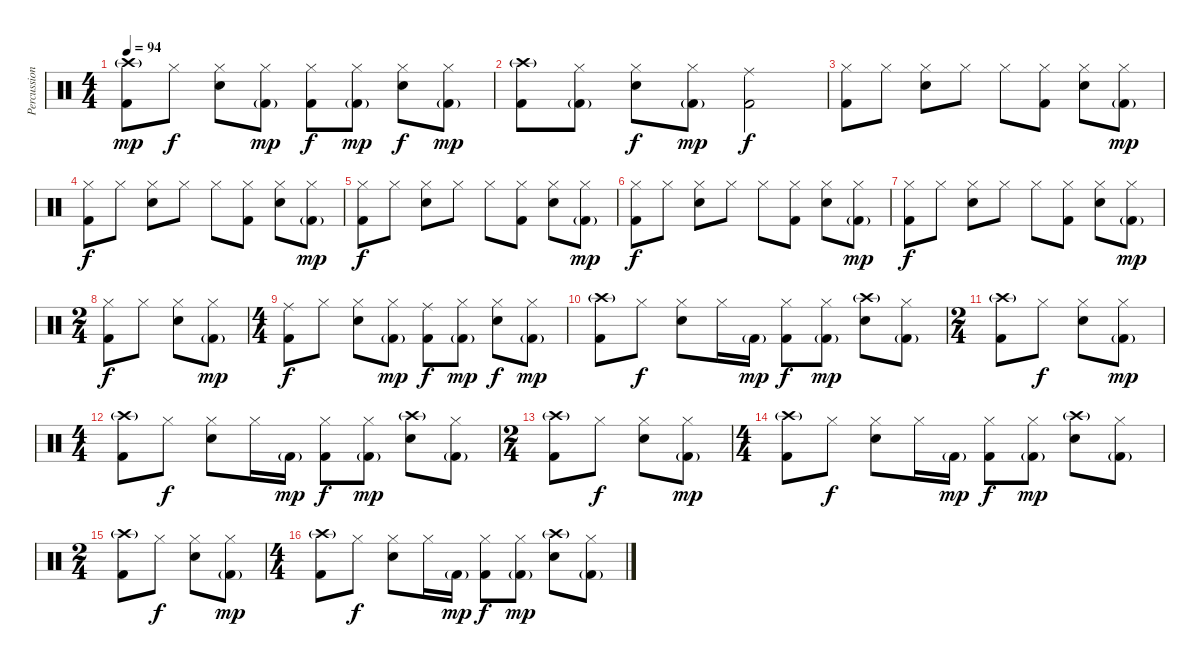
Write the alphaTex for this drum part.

\track ("Percussion" "Percussion") {instrument percussion}
\staff {score}
\articulation defaults
\ts (4 4)
\tempo 94
\clef neutral
\ks c
("Crash high (hit)"{g} "Kick (hit) 2").8{dy mp} "Hi-Hat (closed)".8{dy f} ("Hi-Hat (closed)" "Snare (hit) 2").8 ("Hi-Hat (closed)" "Kick (hit) 2"{g}).8{dy mp} ("Hi-Hat (closed)" "Kick (hit) 2").8{dy f} ("Hi-Hat (closed)" "Kick (hit) 2"{g}).8{dy mp} ("Hi-Hat (closed)" "Snare (hit) 2").8{dy f} ("Hi-Hat (closed)" "Kick (hit) 2"{g}).8{dy mp} |
("Crash high (hit)"{g} "Kick (hit) 2").8 ("Hi-Hat (closed)" "Kick (hit) 2"{g}).8 ("Hi-Hat (closed)" "Snare (hit) 2").8{dy f} ("Hi-Hat (closed)" "Kick (hit) 2"{g}).8{dy mp} ("Ride (middle)" "Kick (hit) 2").2{dy f} |
("Hi-Hat (closed)" "Kick (hit) 2").8 "Hi-Hat (closed)".8 ("Hi-Hat (closed)" "Snare (hit) 2").8 "Hi-Hat (closed)".8 "Hi-Hat (closed)".8 ("Hi-Hat (closed)" "Kick (hit) 2").8 ("Hi-Hat (closed)" "Snare (hit) 2").8 ("Hi-Hat (closed)" "Kick (hit) 2"{g}).8{dy mp} |
("Hi-Hat (closed)" "Kick (hit) 2").8{dy f} "Hi-Hat (closed)".8 ("Hi-Hat (closed)" "Snare (hit) 2").8 "Hi-Hat (closed)".8 "Hi-Hat (closed)".8 ("Hi-Hat (closed)" "Kick (hit) 2").8 ("Hi-Hat (closed)" "Snare (hit) 2").8 ("Hi-Hat (closed)" "Kick (hit) 2"{g}).8{dy mp} |
("Hi-Hat (closed)" "Kick (hit) 2").8{dy f} "Hi-Hat (closed)".8 ("Hi-Hat (closed)" "Snare (hit) 2").8 "Hi-Hat (closed)".8 "Hi-Hat (closed)".8 ("Hi-Hat (closed)" "Kick (hit) 2").8 ("Hi-Hat (closed)" "Snare (hit) 2").8 ("Hi-Hat (closed)" "Kick (hit) 2"{g}).8{dy mp} |
("Hi-Hat (closed)" "Kick (hit) 2").8{dy f} "Hi-Hat (closed)".8 ("Hi-Hat (closed)" "Snare (hit) 2").8 "Hi-Hat (closed)".8 "Hi-Hat (closed)".8 ("Hi-Hat (closed)" "Kick (hit) 2").8 ("Hi-Hat (closed)" "Snare (hit) 2").8 ("Hi-Hat (closed)" "Kick (hit) 2"{g}).8{dy mp} |
("Hi-Hat (closed)" "Kick (hit) 2").8{dy f} "Hi-Hat (closed)".8 ("Hi-Hat (closed)" "Snare (hit) 2").8 "Hi-Hat (closed)".8 "Hi-Hat (closed)".8 ("Hi-Hat (closed)" "Kick (hit) 2").8 ("Hi-Hat (closed)" "Snare (hit) 2").8 ("Hi-Hat (closed)" "Kick (hit) 2"{g}).8{dy mp} |
\ts (2 4)
("Hi-Hat (closed)" "Kick (hit) 2").8{dy f} "Hi-Hat (closed)".8 ("Hi-Hat (closed)" "Snare (hit) 2").8 ("Hi-Hat (closed)" "Kick (hit) 2"{g}).8{dy mp} |
\ts (4 4)
("Ride (middle)" "Kick (hit) 2").8{dy f} "Hi-Hat (closed)".8 ("Hi-Hat (closed)" "Snare (hit) 2").8 ("Hi-Hat (closed)" "Kick (hit) 2"{g}).8{dy mp} ("Ride (middle)" "Kick (hit) 2").8{dy f} ("Hi-Hat (closed)" "Kick (hit) 2"{g}).8{dy mp} ("Hi-Hat (closed)" "Snare (hit) 2").8{dy f} ("Hi-Hat (closed)" "Kick (hit) 2"{g}).8{dy mp} |
("Crash high (hit)"{g} "Kick (hit) 2").8 "Hi-Hat (closed)".8{dy f} ("Hi-Hat (closed)" "Snare (hit) 2").8 "Hi-Hat (closed)".16 "Kick (hit) 2"{g}.16{dy mp} ("Hi-Hat (closed)" "Kick (hit) 2").8{dy f} ("Hi-Hat (closed)" "Kick (hit) 2"{g}).8{dy mp} ("Crash high (hit)"{g} "Snare (hit) 2").8 ("Hi-Hat (closed)" "Kick (hit) 2"{g}).8 |
\ts (2 4)
("Crash high (hit)"{g} "Kick (hit) 2").8 "Hi-Hat (closed)".8{dy f} ("Hi-Hat (closed)" "Snare (hit) 2").8 ("Hi-Hat (closed)" "Kick (hit) 2"{g}).8{dy mp} |
\ts (4 4)
("Crash high (hit)"{g} "Kick (hit) 2").8 "Hi-Hat (closed)".8{dy f} ("Hi-Hat (closed)" "Snare (hit) 2").8 "Hi-Hat (closed)".16 "Kick (hit) 2"{g}.16{dy mp} ("Hi-Hat (closed)" "Kick (hit) 2").8{dy f} ("Hi-Hat (closed)" "Kick (hit) 2"{g}).8{dy mp} ("Crash high (hit)"{g} "Snare (hit) 2").8 ("Hi-Hat (closed)" "Kick (hit) 2"{g}).8 |
\ts (2 4)
("Crash high (hit)"{g} "Kick (hit) 2").8 "Hi-Hat (closed)".8{dy f} ("Hi-Hat (closed)" "Snare (hit) 2").8 ("Hi-Hat (closed)" "Kick (hit) 2"{g}).8{dy mp} |
\ts (4 4)
("Crash high (hit)"{g} "Kick (hit) 2").8 "Hi-Hat (closed)".8{dy f} ("Hi-Hat (closed)" "Snare (hit) 2").8 "Hi-Hat (closed)".16 "Kick (hit) 2"{g}.16{dy mp} ("Hi-Hat (closed)" "Kick (hit) 2").8{dy f} ("Hi-Hat (closed)" "Kick (hit) 2"{g}).8{dy mp} ("Crash high (hit)"{g} "Snare (hit) 2").8 ("Hi-Hat (closed)" "Kick (hit) 2"{g}).8 |
\ts (2 4)
("Crash high (hit)"{g} "Kick (hit) 2").8 "Hi-Hat (closed)".8{dy f} ("Hi-Hat (closed)" "Snare (hit) 2").8 ("Hi-Hat (closed)" "Kick (hit) 2"{g}).8{dy mp} |
\ts (4 4)
("Crash high (hit)"{g} "Kick (hit) 2").8 "Hi-Hat (closed)".8{dy f} ("Hi-Hat (closed)" "Snare (hit) 2").8 "Hi-Hat (closed)".16 "Kick (hit) 2"{g}.16{dy mp} ("Hi-Hat (closed)" "Kick (hit) 2").8{dy f} ("Hi-Hat (closed)" "Kick (hit) 2"{g}).8{dy mp} ("Crash high (hit)"{g} "Snare (hit) 2").8 ("Hi-Hat (closed)" "Kick (hit) 2"{g}).8
